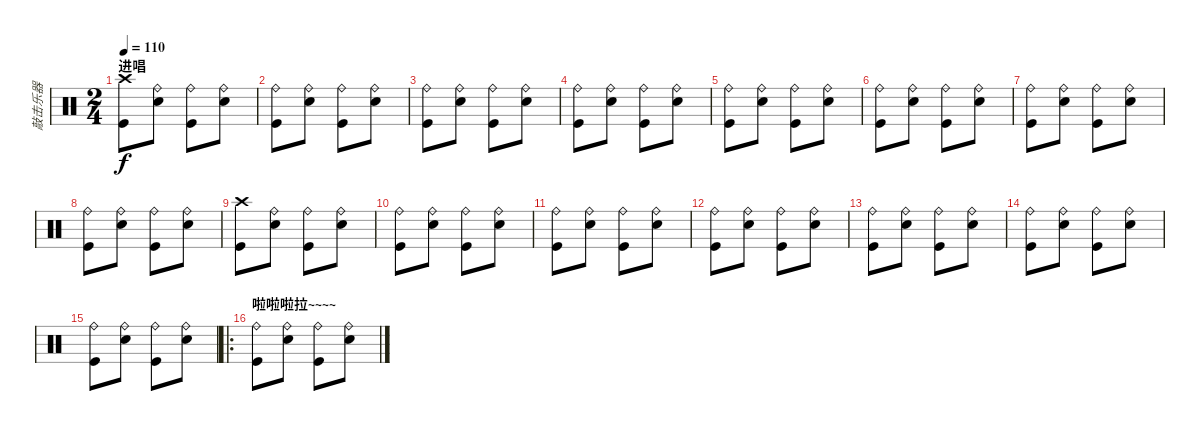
\track ("敲击乐器" "敲击乐器") {instrument percussion}
\staff {score}
\articulation defaults
\ts (2 4)
\section ("" "进唱")
\tempo 110
\clef neutral
\ks c
("Crash high (hit)" "Kick (hit)").8{dy f} ("Ride (bell)" "Snare (hit) 2").8 ("Ride (bell)" "Kick (hit)").8 ("Ride (bell)" "Snare (hit) 2").8 |
("Ride (bell)" "Kick (hit)").8 ("Ride (bell)" "Snare (hit) 2").8 ("Ride (bell)" "Kick (hit)").8 ("Ride (bell)" "Snare (hit) 2").8 |
("Ride (bell)" "Kick (hit)").8 ("Ride (bell)" "Snare (hit) 2").8 ("Ride (bell)" "Kick (hit)").8 ("Ride (bell)" "Snare (hit) 2").8 |
("Ride (bell)" "Kick (hit)").8 ("Ride (bell)" "Snare (hit) 2").8 ("Ride (bell)" "Kick (hit)").8 ("Ride (bell)" "Snare (hit) 2").8 |
("Ride (bell)" "Kick (hit)").8 ("Ride (bell)" "Snare (hit) 2").8 ("Ride (bell)" "Kick (hit)").8 ("Ride (bell)" "Snare (hit) 2").8 |
("Ride (bell)" "Kick (hit)").8 ("Ride (bell)" "Snare (hit) 2").8 ("Ride (bell)" "Kick (hit)").8 ("Ride (bell)" "Snare (hit) 2").8 |
("Ride (bell)" "Kick (hit)").8 ("Ride (bell)" "Snare (hit) 2").8 ("Ride (bell)" "Kick (hit)").8 ("Ride (bell)" "Snare (hit) 2").8 |
("Ride (bell)" "Kick (hit)").8 ("Ride (bell)" "Snare (hit) 2").8 ("Ride (bell)" "Kick (hit)").8 ("Ride (bell)" "Snare (hit) 2").8 |
("Crash high (hit)" "Kick (hit)").8 ("Ride (bell)" "Snare (hit) 2").8 ("Ride (bell)" "Kick (hit)").8 ("Ride (bell)" "Snare (hit) 2").8 |
("Ride (bell)" "Kick (hit)").8 ("Ride (bell)" "Snare (hit) 2").8 ("Ride (bell)" "Kick (hit)").8 ("Ride (bell)" "Snare (hit) 2").8 |
("Ride (bell)" "Kick (hit)").8 ("Ride (bell)" "Snare (hit) 2").8 ("Ride (bell)" "Kick (hit)").8 ("Ride (bell)" "Snare (hit) 2").8 |
("Ride (bell)" "Kick (hit)").8 ("Ride (bell)" "Snare (hit) 2").8 ("Ride (bell)" "Kick (hit)").8 ("Ride (bell)" "Snare (hit) 2").8 |
("Ride (bell)" "Kick (hit)").8 ("Ride (bell)" "Snare (hit) 2").8 ("Ride (bell)" "Kick (hit)").8 ("Ride (bell)" "Snare (hit) 2").8 |
("Ride (bell)" "Kick (hit)").8 ("Ride (bell)" "Snare (hit) 2").8 ("Ride (bell)" "Kick (hit)").8 ("Ride (bell)" "Snare (hit) 2").8 |
("Ride (bell)" "Kick (hit)").8 ("Ride (bell)" "Snare (hit) 2").8 ("Ride (bell)" "Kick (hit)").8 ("Ride (bell)" "Snare (hit) 2").8 |
\ro
\section ("" "啦啦啦拉~~~~")
("Ride (bell)" "Kick (hit)").8 ("Ride (bell)" "Snare (hit) 2").8 ("Ride (bell)" "Kick (hit)").8 ("Ride (bell)" "Snare (hit) 2").8
